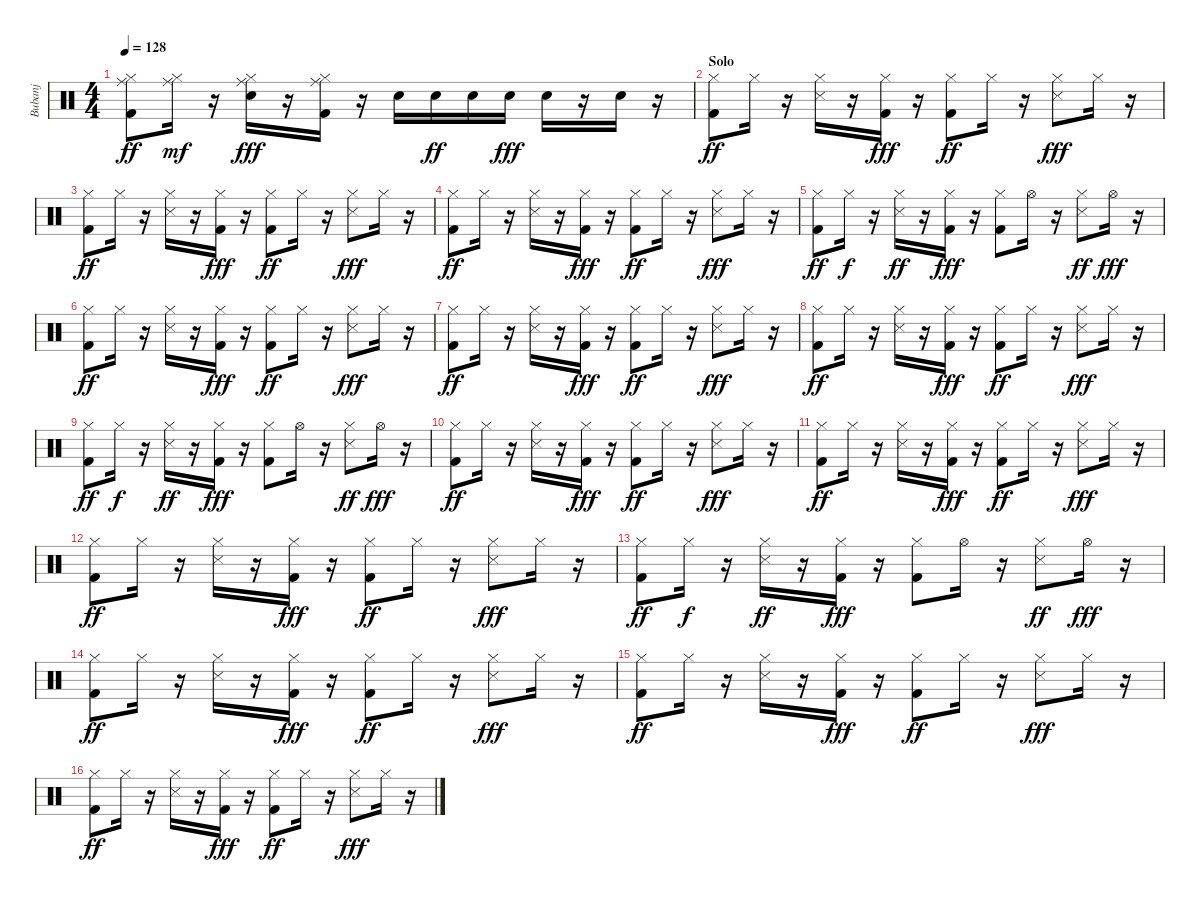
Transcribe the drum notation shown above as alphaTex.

\track ("Bubanj" "Bubanj") {instrument percussion}
\staff {score}
\articulation defaults
\ts (4 4)
\tempo 128
\clef neutral
\ks c
("Kick (hit) 2" "Hi-Hat (closed)" "Ride (middle)").8{dy ff} ("Hi-Hat (closed)" "Ride (middle)").16{dy mf} r.16 ("Electric Snare (hit)" "Hi-Hat (closed)" "Ride (middle)").16{dy fff} r.16 ("Kick (hit) 2" "Hi-Hat (closed)" "Ride (middle)").16 r.16 "Electric Snare (hit)".16 "Electric Snare (hit)".16{dy ff} "Electric Snare (hit)".16 "Electric Snare (hit)".16{dy fff} "Electric Snare (hit)".16 r.16 "Electric Snare (hit)".16 r.16 |
\section ("" "Solo")
("Kick (hit) 2" "Hi-Hat (closed)").8{dy ff} "Hi-Hat (closed)".16 r.16 ("Snare (side stick) 3" "Hi-Hat (closed)").16 r.16 ("Hi-Hat (closed)" "Kick (hit) 2").16{dy fff} r.16 ("Hi-Hat (closed)" "Kick (hit) 2").8{dy ff} "Hi-Hat (closed)".16 r.16 ("Hi-Hat (closed)" "Snare (side stick) 3").8{dy fff} "Hi-Hat (closed)".16 r.16 |
("Kick (hit) 2" "Hi-Hat (closed)").8{dy ff} "Hi-Hat (closed)".16 r.16 ("Snare (side stick) 3" "Hi-Hat (closed)").16 r.16 ("Hi-Hat (closed)" "Kick (hit) 2").16{dy fff} r.16 ("Hi-Hat (closed)" "Kick (hit) 2").8{dy ff} "Hi-Hat (closed)".16 r.16 ("Hi-Hat (closed)" "Snare (side stick) 3").8{dy fff} "Hi-Hat (closed)".16 r.16 |
("Kick (hit) 2" "Hi-Hat (closed)").8{dy ff} "Hi-Hat (closed)".16 r.16 ("Snare (side stick) 3" "Hi-Hat (closed)").16 r.16 ("Hi-Hat (closed)" "Kick (hit) 2").16{dy fff} r.16 ("Hi-Hat (closed)" "Kick (hit) 2").8{dy ff} "Hi-Hat (closed)".16 r.16 ("Hi-Hat (closed)" "Snare (side stick) 3").8{dy fff} "Hi-Hat (closed)".16 r.16 |
("Kick (hit) 2" "Hi-Hat (closed)").8{dy ff} "Hi-Hat (closed)".16{dy f} r.16 ("Hi-Hat (closed)" "Snare (side stick) 3").16{dy ff} r.16 ("Kick (hit) 2" "Hi-Hat (closed)").16{dy fff} r.16 ("Hi-Hat (closed)" "Kick (hit) 2").8 "Hi-Hat (open)".16 r.16 ("Hi-Hat (closed)" "Snare (side stick) 3").8{dy ff} "Hi-Hat (open)".16{dy fff} r.16 |
("Kick (hit) 2" "Hi-Hat (closed)").8{dy ff} "Hi-Hat (closed)".16 r.16 ("Snare (side stick) 3" "Hi-Hat (closed)").16 r.16 ("Hi-Hat (closed)" "Kick (hit) 2").16{dy fff} r.16 ("Hi-Hat (closed)" "Kick (hit) 2").8{dy ff} "Hi-Hat (closed)".16 r.16 ("Hi-Hat (closed)" "Snare (side stick) 3").8{dy fff} "Hi-Hat (closed)".16 r.16 |
("Kick (hit) 2" "Hi-Hat (closed)").8{dy ff} "Hi-Hat (closed)".16 r.16 ("Snare (side stick) 3" "Hi-Hat (closed)").16 r.16 ("Hi-Hat (closed)" "Kick (hit) 2").16{dy fff} r.16 ("Hi-Hat (closed)" "Kick (hit) 2").8{dy ff} "Hi-Hat (closed)".16 r.16 ("Hi-Hat (closed)" "Snare (side stick) 3").8{dy fff} "Hi-Hat (closed)".16 r.16 |
("Kick (hit) 2" "Hi-Hat (closed)").8{dy ff} "Hi-Hat (closed)".16 r.16 ("Snare (side stick) 3" "Hi-Hat (closed)").16 r.16 ("Hi-Hat (closed)" "Kick (hit) 2").16{dy fff} r.16 ("Hi-Hat (closed)" "Kick (hit) 2").8{dy ff} "Hi-Hat (closed)".16 r.16 ("Hi-Hat (closed)" "Snare (side stick) 3").8{dy fff} "Hi-Hat (closed)".16 r.16 |
("Kick (hit) 2" "Hi-Hat (closed)").8{dy ff} "Hi-Hat (closed)".16{dy f} r.16 ("Hi-Hat (closed)" "Snare (side stick) 3").16{dy ff} r.16 ("Kick (hit) 2" "Hi-Hat (closed)").16{dy fff} r.16 ("Hi-Hat (closed)" "Kick (hit) 2").8 "Hi-Hat (open)".16 r.16 ("Hi-Hat (closed)" "Snare (side stick) 3").8{dy ff} "Hi-Hat (open)".16{dy fff} r.16 |
("Kick (hit) 2" "Hi-Hat (closed)").8{dy ff} "Hi-Hat (closed)".16 r.16 ("Snare (side stick) 3" "Hi-Hat (closed)").16 r.16 ("Hi-Hat (closed)" "Kick (hit) 2").16{dy fff} r.16 ("Hi-Hat (closed)" "Kick (hit) 2").8{dy ff} "Hi-Hat (closed)".16 r.16 ("Hi-Hat (closed)" "Snare (side stick) 3").8{dy fff} "Hi-Hat (closed)".16 r.16 |
("Kick (hit) 2" "Hi-Hat (closed)").8{dy ff} "Hi-Hat (closed)".16 r.16 ("Snare (side stick) 3" "Hi-Hat (closed)").16 r.16 ("Hi-Hat (closed)" "Kick (hit) 2").16{dy fff} r.16 ("Hi-Hat (closed)" "Kick (hit) 2").8{dy ff} "Hi-Hat (closed)".16 r.16 ("Hi-Hat (closed)" "Snare (side stick) 3").8{dy fff} "Hi-Hat (closed)".16 r.16 |
("Kick (hit) 2" "Hi-Hat (closed)").8{dy ff} "Hi-Hat (closed)".16 r.16 ("Snare (side stick) 3" "Hi-Hat (closed)").16 r.16 ("Hi-Hat (closed)" "Kick (hit) 2").16{dy fff} r.16 ("Hi-Hat (closed)" "Kick (hit) 2").8{dy ff} "Hi-Hat (closed)".16 r.16 ("Hi-Hat (closed)" "Snare (side stick) 3").8{dy fff} "Hi-Hat (closed)".16 r.16 |
("Kick (hit) 2" "Hi-Hat (closed)").8{dy ff} "Hi-Hat (closed)".16{dy f} r.16 ("Hi-Hat (closed)" "Snare (side stick) 3").16{dy ff} r.16 ("Kick (hit) 2" "Hi-Hat (closed)").16{dy fff} r.16 ("Hi-Hat (closed)" "Kick (hit) 2").8 "Hi-Hat (open)".16 r.16 ("Hi-Hat (closed)" "Snare (side stick) 3").8{dy ff} "Hi-Hat (open)".16{dy fff} r.16 |
("Kick (hit) 2" "Hi-Hat (closed)").8{dy ff} "Hi-Hat (closed)".16 r.16 ("Snare (side stick) 3" "Hi-Hat (closed)").16 r.16 ("Hi-Hat (closed)" "Kick (hit) 2").16{dy fff} r.16 ("Hi-Hat (closed)" "Kick (hit) 2").8{dy ff} "Hi-Hat (closed)".16 r.16 ("Hi-Hat (closed)" "Snare (side stick) 3").8{dy fff} "Hi-Hat (closed)".16 r.16 |
("Kick (hit) 2" "Hi-Hat (closed)").8{dy ff} "Hi-Hat (closed)".16 r.16 ("Snare (side stick) 3" "Hi-Hat (closed)").16 r.16 ("Hi-Hat (closed)" "Kick (hit) 2").16{dy fff} r.16 ("Hi-Hat (closed)" "Kick (hit) 2").8{dy ff} "Hi-Hat (closed)".16 r.16 ("Hi-Hat (closed)" "Snare (side stick) 3").8{dy fff} "Hi-Hat (closed)".16 r.16 |
("Kick (hit) 2" "Hi-Hat (closed)").8{dy ff} "Hi-Hat (closed)".16 r.16 ("Snare (side stick) 3" "Hi-Hat (closed)").16 r.16 ("Hi-Hat (closed)" "Kick (hit) 2").16{dy fff} r.16 ("Hi-Hat (closed)" "Kick (hit) 2").8{dy ff} "Hi-Hat (closed)".16 r.16 ("Hi-Hat (closed)" "Snare (side stick) 3").8{dy fff} "Hi-Hat (closed)".16 r.16
